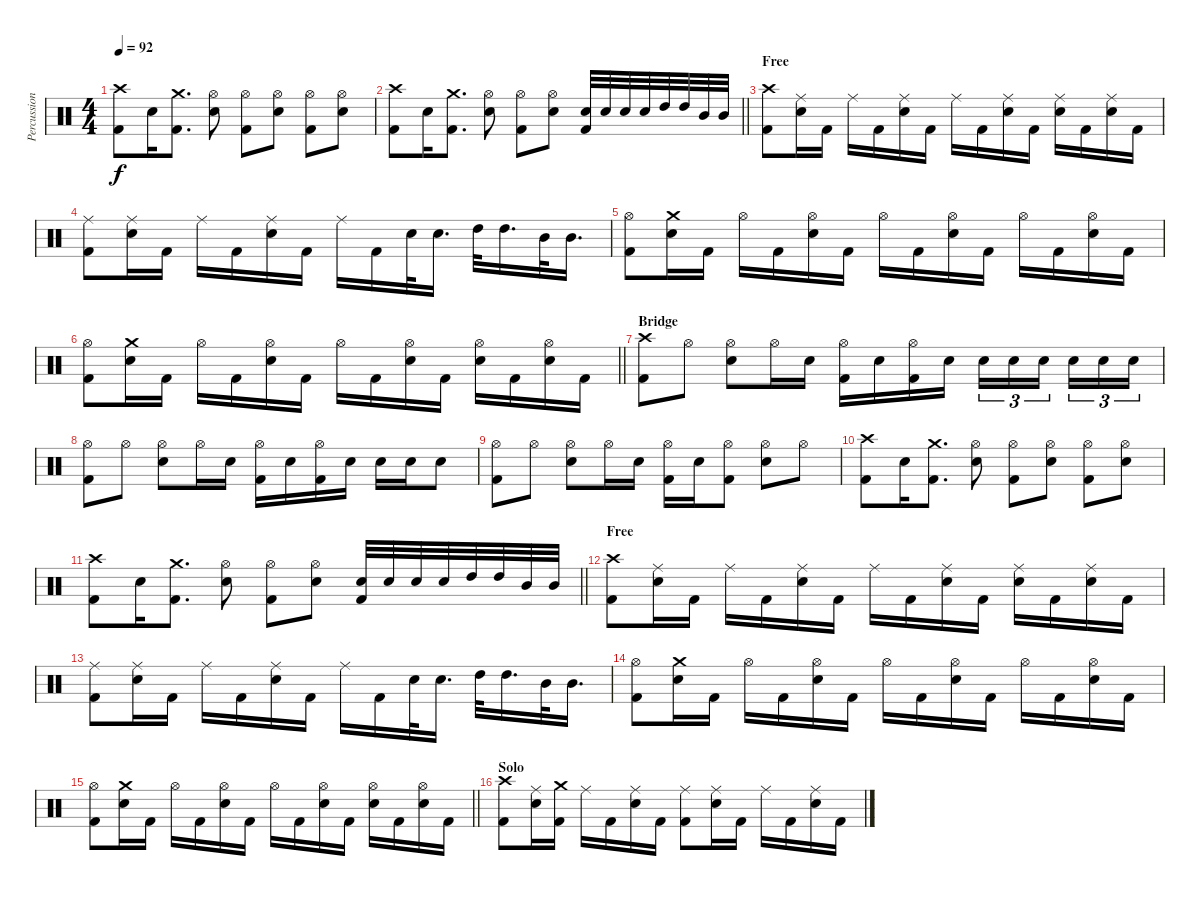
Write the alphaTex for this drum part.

\track ("Percussion" "Percussion") {instrument percussion}
\staff {score}
\articulation defaults
\ts (4 4)
\tempo 92
\clef neutral
\ks c
("Crash high (hit)" "Kick (hit) 2").8{dy f} "Electric Snare (hit)".16 ("Crash medium (hit)" "Kick (hit) 2").8{d} ("Hi-Hat (open)" "Electric Snare (hit)").8 ("Hi-Hat (open)" "Kick (hit) 2").8 ("Hi-Hat (open)" "Electric Snare (hit)").8 ("Hi-Hat (open)" "Kick (hit) 2").8 ("Hi-Hat (open)" "Electric Snare (hit)").8 |
\barLineRight lightlight
("Crash high (hit)" "Kick (hit) 2").8 "Electric Snare (hit)".16 ("Crash medium (hit)" "Kick (hit) 2").8{d} ("Hi-Hat (open)" "Electric Snare (hit)").8 ("Hi-Hat (open)" "Kick (hit) 2").8 ("Hi-Hat (open)" "Electric Snare (hit)").8 ("Electric Snare (hit)" "Kick (hit) 2").32 "Electric Snare (hit)".32 "Electric Snare (hit)".32 "Electric Snare (hit)".32 "High Tom (hit)".32 "High Tom (hit)".32 "Mid Tom (hit)".32 "Mid Tom (hit)".32 |
\section ("" "Free")
("Crash high (hit)" "Kick (hit) 2").8 ("Ride (middle)" "Electric Snare (hit)").16 "Kick (hit) 2".16 "Ride (middle)".16 "Kick (hit) 2".16 ("Ride (middle)" "Electric Snare (hit)").16 "Kick (hit) 2".16 "Ride (middle)".16 "Kick (hit) 2".16 ("Ride (middle)" "Electric Snare (hit)").16 "Kick (hit) 2".16 ("Ride (middle)" "Electric Snare (hit)").16 "Kick (hit) 2".16 ("Ride (middle)" "Electric Snare (hit)").16 "Kick (hit) 2".16 |
("Ride (middle)" "Kick (hit) 2").8 ("Ride (middle)" "Electric Snare (hit)").16 "Kick (hit) 2".16 "Ride (middle)".16 "Kick (hit) 2".16 ("Ride (middle)" "Electric Snare (hit)").16 "Kick (hit) 2".16 "Ride (middle)".16 "Kick (hit) 2".16 "Electric Snare (hit)".32 "Electric Snare (hit)".16{d} "High Tom (hit)".32 "High Tom (hit)".16{d} "Mid Tom (hit)".32 "Mid Tom (hit)".16{d} |
("Hi-Hat (open)" "Kick (hit) 2").8 ("Crash medium (hit)" "Electric Snare (hit)").16 "Kick (hit) 2".16 "Hi-Hat (open)".16 "Kick (hit) 2".16 ("Hi-Hat (open)" "Electric Snare (hit)").16 "Kick (hit) 2".16 "Hi-Hat (open)".16 "Kick (hit) 2".16 ("Hi-Hat (open)" "Electric Snare (hit)").16 "Kick (hit) 2".16 "Hi-Hat (open)".16 "Kick (hit) 2".16 ("Hi-Hat (open)" "Electric Snare (hit)").16 "Kick (hit) 2".16 |
\barLineRight lightlight
("Hi-Hat (open)" "Kick (hit) 2").8 ("Crash medium (hit)" "Electric Snare (hit)").16 "Kick (hit) 2".16 "Hi-Hat (open)".16 "Kick (hit) 2".16 ("Hi-Hat (open)" "Electric Snare (hit)").16 "Kick (hit) 2".16 "Hi-Hat (open)".16 "Kick (hit) 2".16 ("Hi-Hat (open)" "Electric Snare (hit)").16 "Kick (hit) 2".16 ("Hi-Hat (open)" "Electric Snare (hit)").16 "Kick (hit) 2".16 ("Hi-Hat (open)" "Electric Snare (hit)").16 "Kick (hit) 2".16 |
\section ("" "Bridge")
("Crash high (hit)" "Kick (hit) 2").8 "Hi-Hat (open)".8 ("Hi-Hat (open)" "Electric Snare (hit)").8 "Hi-Hat (open)".16 "Electric Snare (hit)".16 ("Hi-Hat (open)" "Kick (hit) 2").16 "Electric Snare (hit)".16 ("Hi-Hat (open)" "Kick (hit) 2").16 "Electric Snare (hit)".16 "Electric Snare (hit)".16{tu (3 2)} "Electric Snare (hit)".16{tu (3 2)} "Electric Snare (hit)".16{tu (3 2) beam splitsecondary} "Electric Snare (hit)".16{tu (3 2)} "Electric Snare (hit)".16{tu (3 2)} "Electric Snare (hit)".16{tu (3 2)} |
("Hi-Hat (open)" "Kick (hit) 2").8 "Hi-Hat (open)".8 ("Hi-Hat (open)" "Electric Snare (hit)").8 "Hi-Hat (open)".16 "Electric Snare (hit)".16 ("Hi-Hat (open)" "Kick (hit) 2").16 "Electric Snare (hit)".16 ("Hi-Hat (open)" "Kick (hit) 2").16 "Electric Snare (hit)".16 "Electric Snare (hit)".16 "Electric Snare (hit)".16 "Electric Snare (hit)".8 |
("Hi-Hat (open)" "Kick (hit) 2").8 "Hi-Hat (open)".8 ("Hi-Hat (open)" "Electric Snare (hit)").8 "Hi-Hat (open)".16 "Electric Snare (hit)".16 ("Hi-Hat (open)" "Kick (hit) 2").16 "Electric Snare (hit)".16 ("Hi-Hat (open)" "Kick (hit) 2").8 ("Hi-Hat (open)" "Electric Snare (hit)").8 "Hi-Hat (open)".8 |
("Crash high (hit)" "Kick (hit) 2").8 "Electric Snare (hit)".16 ("Crash medium (hit)" "Kick (hit) 2").8{d} ("Hi-Hat (open)" "Electric Snare (hit)").8 ("Hi-Hat (open)" "Kick (hit) 2").8 ("Hi-Hat (open)" "Electric Snare (hit)").8 ("Hi-Hat (open)" "Kick (hit) 2").8 ("Hi-Hat (open)" "Electric Snare (hit)").8 |
\barLineRight lightlight
("Crash high (hit)" "Kick (hit) 2").8 "Electric Snare (hit)".16 ("Crash medium (hit)" "Kick (hit) 2").8{d} ("Hi-Hat (open)" "Electric Snare (hit)").8 ("Hi-Hat (open)" "Kick (hit) 2").8 ("Hi-Hat (open)" "Electric Snare (hit)").8 ("Electric Snare (hit)" "Kick (hit) 2").32 "Electric Snare (hit)".32 "Electric Snare (hit)".32 "Electric Snare (hit)".32 "High Tom (hit)".32 "High Tom (hit)".32 "Mid Tom (hit)".32 "Mid Tom (hit)".32 |
\section ("" "Free")
("Crash high (hit)" "Kick (hit) 2").8 ("Ride (middle)" "Electric Snare (hit)").16 "Kick (hit) 2".16 "Ride (middle)".16 "Kick (hit) 2".16 ("Ride (middle)" "Electric Snare (hit)").16 "Kick (hit) 2".16 "Ride (middle)".16 "Kick (hit) 2".16 ("Ride (middle)" "Electric Snare (hit)").16 "Kick (hit) 2".16 ("Ride (middle)" "Electric Snare (hit)").16 "Kick (hit) 2".16 ("Ride (middle)" "Electric Snare (hit)").16 "Kick (hit) 2".16 |
("Ride (middle)" "Kick (hit) 2").8 ("Ride (middle)" "Electric Snare (hit)").16 "Kick (hit) 2".16 "Ride (middle)".16 "Kick (hit) 2".16 ("Ride (middle)" "Electric Snare (hit)").16 "Kick (hit) 2".16 "Ride (middle)".16 "Kick (hit) 2".16 "Electric Snare (hit)".32 "Electric Snare (hit)".16{d} "High Tom (hit)".32 "High Tom (hit)".16{d} "Mid Tom (hit)".32 "Mid Tom (hit)".16{d} |
("Hi-Hat (open)" "Kick (hit) 2").8 ("Crash medium (hit)" "Electric Snare (hit)").16 "Kick (hit) 2".16 "Hi-Hat (open)".16 "Kick (hit) 2".16 ("Hi-Hat (open)" "Electric Snare (hit)").16 "Kick (hit) 2".16 "Hi-Hat (open)".16 "Kick (hit) 2".16 ("Hi-Hat (open)" "Electric Snare (hit)").16 "Kick (hit) 2".16 "Hi-Hat (open)".16 "Kick (hit) 2".16 ("Hi-Hat (open)" "Electric Snare (hit)").16 "Kick (hit) 2".16 |
\barLineRight lightlight
("Hi-Hat (open)" "Kick (hit) 2").8 ("Crash medium (hit)" "Electric Snare (hit)").16 "Kick (hit) 2".16 "Hi-Hat (open)".16 "Kick (hit) 2".16 ("Hi-Hat (open)" "Electric Snare (hit)").16 "Kick (hit) 2".16 "Hi-Hat (open)".16 "Kick (hit) 2".16 ("Hi-Hat (open)" "Electric Snare (hit)").16 "Kick (hit) 2".16 ("Hi-Hat (open)" "Electric Snare (hit)").16 "Kick (hit) 2".16 ("Hi-Hat (open)" "Electric Snare (hit)").16 "Kick (hit) 2".16 |
\section ("" "Solo")
("Crash high (hit)" "Kick (hit) 2").8 ("Ride (middle)" "Electric Snare (hit)").16 ("Crash medium (hit)" "Kick (hit) 2").16 "Ride (middle)".16 "Kick (hit) 2".16 ("Ride (middle)" "Electric Snare (hit)").16 "Kick (hit) 2".16 ("Ride (middle)" "Kick (hit) 2").8 ("Ride (middle)" "Electric Snare (hit)").16 "Kick (hit) 2".16 "Ride (middle)".16 "Kick (hit) 2".16 ("Ride (middle)" "Electric Snare (hit)").16 "Kick (hit) 2".16
